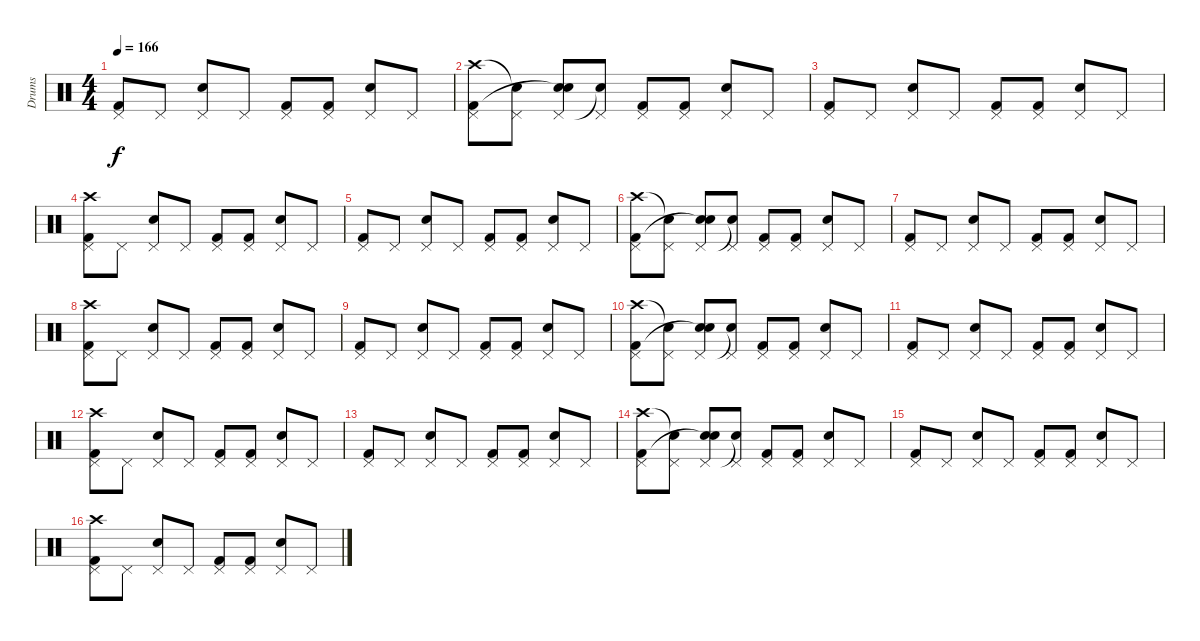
\track ("Drums" "Drums") {instrument percussion}
\staff {score}
\articulation defaults
\ts (4 4)
\tempo 166
\clef neutral
\ks c
("Pedal Hi-Hat (hit)" "Kick (hit) 2").8{dy f} "Pedal Hi-Hat (hit)".8 ("Electric Snare (hit)" "Pedal Hi-Hat (hit)").8 "Pedal Hi-Hat (hit)".8 ("Pedal Hi-Hat (hit)" "Kick (hit) 2").8 ("Pedal Hi-Hat (hit)" "Kick (hit) 2").8 ("Electric Snare (hit)" "Pedal Hi-Hat (hit)").8 "Pedal Hi-Hat (hit)".8 |
("Pedal Hi-Hat (hit)" "Crash high (hit)" "Kick (hit) 2").8 ("Pedal Hi-Hat (hit)" "Snare (hit)"{t}).8 ("Electric Snare (hit)" "Pedal Hi-Hat (hit)" "Snare (hit)"{t}).8 ("Pedal Hi-Hat (hit)" "Snare (hit)"{t}).8 ("Pedal Hi-Hat (hit)" "Kick (hit) 2").8 ("Pedal Hi-Hat (hit)" "Kick (hit) 2").8 ("Electric Snare (hit)" "Pedal Hi-Hat (hit)").8 "Pedal Hi-Hat (hit)".8 |
("Pedal Hi-Hat (hit)" "Kick (hit) 2").8 "Pedal Hi-Hat (hit)".8 ("Electric Snare (hit)" "Pedal Hi-Hat (hit)").8 "Pedal Hi-Hat (hit)".8 ("Pedal Hi-Hat (hit)" "Kick (hit) 2").8 ("Pedal Hi-Hat (hit)" "Kick (hit) 2").8 ("Electric Snare (hit)" "Pedal Hi-Hat (hit)").8 "Pedal Hi-Hat (hit)".8 |
("Pedal Hi-Hat (hit)" "Crash high (hit)" "Kick (hit) 2").8 "Pedal Hi-Hat (hit)".8 ("Electric Snare (hit)" "Pedal Hi-Hat (hit)").8 "Pedal Hi-Hat (hit)".8 ("Pedal Hi-Hat (hit)" "Kick (hit) 2").8 ("Pedal Hi-Hat (hit)" "Kick (hit) 2").8 ("Electric Snare (hit)" "Pedal Hi-Hat (hit)").8 "Pedal Hi-Hat (hit)".8 |
("Pedal Hi-Hat (hit)" "Kick (hit) 2").8 "Pedal Hi-Hat (hit)".8 ("Electric Snare (hit)" "Pedal Hi-Hat (hit)").8 "Pedal Hi-Hat (hit)".8 ("Pedal Hi-Hat (hit)" "Kick (hit) 2").8 ("Pedal Hi-Hat (hit)" "Kick (hit) 2").8 ("Electric Snare (hit)" "Pedal Hi-Hat (hit)").8 "Pedal Hi-Hat (hit)".8 |
("Pedal Hi-Hat (hit)" "Crash high (hit)" "Kick (hit) 2").8 ("Pedal Hi-Hat (hit)" "Snare (hit)"{t}).8 ("Electric Snare (hit)" "Pedal Hi-Hat (hit)" "Snare (hit)"{t}).8 ("Pedal Hi-Hat (hit)" "Snare (hit)"{t}).8 ("Pedal Hi-Hat (hit)" "Kick (hit) 2").8 ("Pedal Hi-Hat (hit)" "Kick (hit) 2").8 ("Electric Snare (hit)" "Pedal Hi-Hat (hit)").8 "Pedal Hi-Hat (hit)".8 |
("Pedal Hi-Hat (hit)" "Kick (hit) 2").8 "Pedal Hi-Hat (hit)".8 ("Electric Snare (hit)" "Pedal Hi-Hat (hit)").8 "Pedal Hi-Hat (hit)".8 ("Pedal Hi-Hat (hit)" "Kick (hit) 2").8 ("Pedal Hi-Hat (hit)" "Kick (hit) 2").8 ("Electric Snare (hit)" "Pedal Hi-Hat (hit)").8 "Pedal Hi-Hat (hit)".8 |
("Pedal Hi-Hat (hit)" "Crash high (hit)" "Kick (hit) 2").8 "Pedal Hi-Hat (hit)".8 ("Electric Snare (hit)" "Pedal Hi-Hat (hit)").8 "Pedal Hi-Hat (hit)".8 ("Pedal Hi-Hat (hit)" "Kick (hit) 2").8 ("Pedal Hi-Hat (hit)" "Kick (hit) 2").8 ("Electric Snare (hit)" "Pedal Hi-Hat (hit)").8 "Pedal Hi-Hat (hit)".8 |
("Pedal Hi-Hat (hit)" "Kick (hit) 2").8 "Pedal Hi-Hat (hit)".8 ("Electric Snare (hit)" "Pedal Hi-Hat (hit)").8 "Pedal Hi-Hat (hit)".8 ("Pedal Hi-Hat (hit)" "Kick (hit) 2").8 ("Pedal Hi-Hat (hit)" "Kick (hit) 2").8 ("Electric Snare (hit)" "Pedal Hi-Hat (hit)").8 "Pedal Hi-Hat (hit)".8 |
("Pedal Hi-Hat (hit)" "Crash high (hit)" "Kick (hit) 2").8 ("Pedal Hi-Hat (hit)" "Snare (hit)"{t}).8 ("Electric Snare (hit)" "Pedal Hi-Hat (hit)" "Snare (hit)"{t}).8 ("Pedal Hi-Hat (hit)" "Snare (hit)"{t}).8 ("Pedal Hi-Hat (hit)" "Kick (hit) 2").8 ("Pedal Hi-Hat (hit)" "Kick (hit) 2").8 ("Electric Snare (hit)" "Pedal Hi-Hat (hit)").8 "Pedal Hi-Hat (hit)".8 |
("Pedal Hi-Hat (hit)" "Kick (hit) 2").8 "Pedal Hi-Hat (hit)".8 ("Electric Snare (hit)" "Pedal Hi-Hat (hit)").8 "Pedal Hi-Hat (hit)".8 ("Pedal Hi-Hat (hit)" "Kick (hit) 2").8 ("Pedal Hi-Hat (hit)" "Kick (hit) 2").8 ("Electric Snare (hit)" "Pedal Hi-Hat (hit)").8 "Pedal Hi-Hat (hit)".8 |
("Pedal Hi-Hat (hit)" "Crash high (hit)" "Kick (hit) 2").8 "Pedal Hi-Hat (hit)".8 ("Electric Snare (hit)" "Pedal Hi-Hat (hit)").8 "Pedal Hi-Hat (hit)".8 ("Pedal Hi-Hat (hit)" "Kick (hit) 2").8 ("Pedal Hi-Hat (hit)" "Kick (hit) 2").8 ("Electric Snare (hit)" "Pedal Hi-Hat (hit)").8 "Pedal Hi-Hat (hit)".8 |
("Pedal Hi-Hat (hit)" "Kick (hit) 2").8 "Pedal Hi-Hat (hit)".8 ("Electric Snare (hit)" "Pedal Hi-Hat (hit)").8 "Pedal Hi-Hat (hit)".8 ("Pedal Hi-Hat (hit)" "Kick (hit) 2").8 ("Pedal Hi-Hat (hit)" "Kick (hit) 2").8 ("Electric Snare (hit)" "Pedal Hi-Hat (hit)").8 "Pedal Hi-Hat (hit)".8 |
("Pedal Hi-Hat (hit)" "Crash high (hit)" "Kick (hit) 2").8 ("Pedal Hi-Hat (hit)" "Snare (hit)"{t}).8 ("Electric Snare (hit)" "Pedal Hi-Hat (hit)" "Snare (hit)"{t}).8 ("Pedal Hi-Hat (hit)" "Snare (hit)"{t}).8 ("Pedal Hi-Hat (hit)" "Kick (hit) 2").8 ("Pedal Hi-Hat (hit)" "Kick (hit) 2").8 ("Electric Snare (hit)" "Pedal Hi-Hat (hit)").8 "Pedal Hi-Hat (hit)".8 |
("Pedal Hi-Hat (hit)" "Kick (hit) 2").8 "Pedal Hi-Hat (hit)".8 ("Electric Snare (hit)" "Pedal Hi-Hat (hit)").8 "Pedal Hi-Hat (hit)".8 ("Pedal Hi-Hat (hit)" "Kick (hit) 2").8 ("Pedal Hi-Hat (hit)" "Kick (hit) 2").8 ("Electric Snare (hit)" "Pedal Hi-Hat (hit)").8 "Pedal Hi-Hat (hit)".8 |
("Pedal Hi-Hat (hit)" "Crash high (hit)" "Kick (hit) 2").8 "Pedal Hi-Hat (hit)".8 ("Electric Snare (hit)" "Pedal Hi-Hat (hit)").8 "Pedal Hi-Hat (hit)".8 ("Pedal Hi-Hat (hit)" "Kick (hit) 2").8 ("Pedal Hi-Hat (hit)" "Kick (hit) 2").8 ("Electric Snare (hit)" "Pedal Hi-Hat (hit)").8 "Pedal Hi-Hat (hit)".8
